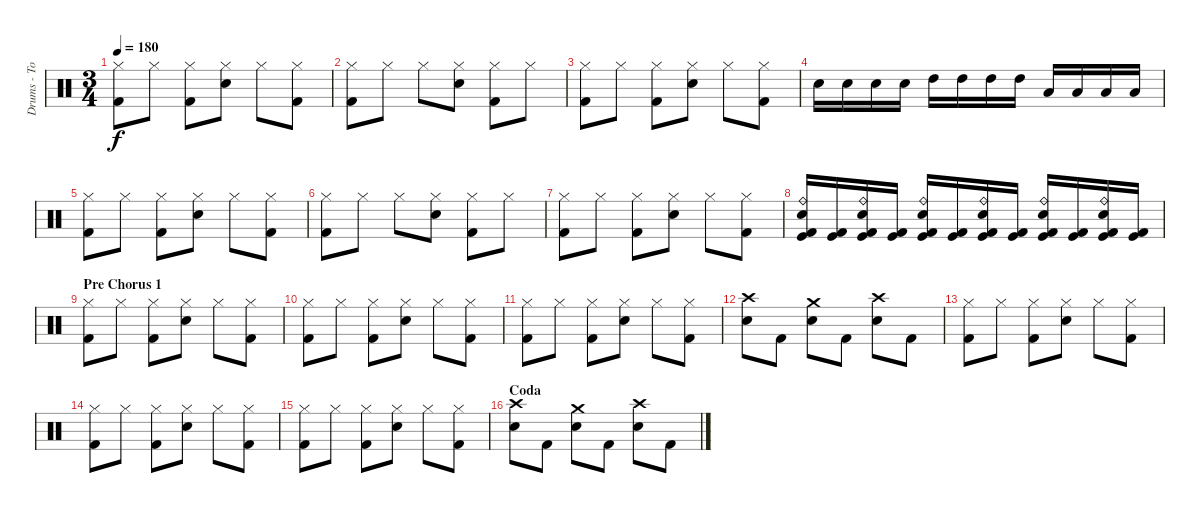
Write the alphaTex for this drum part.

\track ("Drums - Tomas" "Drums - To") {instrument percussion}
\staff {score}
\articulation defaults
\ts (3 4)
\tempo 180
\clef neutral
\ks c
("Hi-Hat (closed)" "Kick (hit) 2").8{dy f} "Hi-Hat (closed)".8 ("Hi-Hat (closed)" "Kick (hit) 2").8 ("Hi-Hat (closed)" "Electric Snare (hit)").8 "Hi-Hat (closed)".8 ("Hi-Hat (closed)" "Kick (hit) 2").8 |
("Hi-Hat (closed)" "Kick (hit) 2").8 "Hi-Hat (closed)".8 "Hi-Hat (closed)".8 ("Hi-Hat (closed)" "Electric Snare (hit)").8 ("Hi-Hat (closed)" "Kick (hit) 2").8 "Hi-Hat (closed)".8 |
("Hi-Hat (closed)" "Kick (hit) 2").8 "Hi-Hat (closed)".8 ("Hi-Hat (closed)" "Kick (hit) 2").8 ("Hi-Hat (closed)" "Electric Snare (hit)").8 "Hi-Hat (closed)".8 ("Hi-Hat (closed)" "Kick (hit) 2").8 |
"Electric Snare (hit)".16 "Electric Snare (hit)".16 "Electric Snare (hit)".16 "Electric Snare (hit)".16 "High Tom (hit)".16 "High Tom (hit)".16 "High Tom (hit)".16 "High Tom (hit)".16 "Low Tom (hit)".16 "Low Tom (hit)".16 "Low Tom (hit)".16 "Low Tom (hit)".16 |
("Hi-Hat (closed)" "Kick (hit) 2").8 "Hi-Hat (closed)".8 ("Hi-Hat (closed)" "Kick (hit) 2").8 ("Hi-Hat (closed)" "Electric Snare (hit)").8 "Hi-Hat (closed)".8 ("Hi-Hat (closed)" "Kick (hit) 2").8 |
("Hi-Hat (closed)" "Kick (hit) 2").8 "Hi-Hat (closed)".8 "Hi-Hat (closed)".8 ("Hi-Hat (closed)" "Electric Snare (hit)").8 ("Hi-Hat (closed)" "Kick (hit) 2").8 "Hi-Hat (closed)".8 |
("Hi-Hat (closed)" "Kick (hit) 2").8 "Hi-Hat (closed)".8 ("Hi-Hat (closed)" "Kick (hit) 2").8 ("Hi-Hat (closed)" "Electric Snare (hit)").8 "Hi-Hat (closed)".8 ("Hi-Hat (closed)" "Kick (hit) 2").8 |
("Ride (bell)" "Electric Snare (hit)" "Kick (hit)" "Kick (hit) 2").16 ("Kick (hit)" "Kick (hit) 2").16 ("Ride (bell)" "Electric Snare (hit)" "Kick (hit)" "Kick (hit) 2").16 ("Kick (hit)" "Kick (hit) 2").16 ("Ride (bell)" "Electric Snare (hit)" "Kick (hit)" "Kick (hit) 2").16 ("Kick (hit)" "Kick (hit) 2").16 ("Ride (bell)" "Electric Snare (hit)" "Kick (hit)" "Kick (hit) 2").16 ("Kick (hit)" "Kick (hit) 2").16 ("Ride (bell)" "Electric Snare (hit)" "Kick (hit)" "Kick (hit) 2").16 ("Kick (hit)" "Kick (hit) 2").16 ("Ride (bell)" "Electric Snare (hit)" "Kick (hit)" "Kick (hit) 2").16 ("Kick (hit)" "Kick (hit) 2").16 |
\section ("" "Pre Chorus 1")
("Hi-Hat (closed)" "Kick (hit) 2").8 "Hi-Hat (closed)".8 ("Hi-Hat (closed)" "Kick (hit) 2").8 ("Hi-Hat (closed)" "Electric Snare (hit)").8 "Hi-Hat (closed)".8 ("Hi-Hat (closed)" "Kick (hit) 2").8 |
("Hi-Hat (closed)" "Kick (hit) 2").8 "Hi-Hat (closed)".8 ("Hi-Hat (closed)" "Kick (hit) 2").8 ("Hi-Hat (closed)" "Electric Snare (hit)").8 "Hi-Hat (closed)".8 ("Hi-Hat (closed)" "Kick (hit) 2").8 |
("Hi-Hat (closed)" "Kick (hit) 2").8 "Hi-Hat (closed)".8 ("Hi-Hat (closed)" "Kick (hit) 2").8 ("Hi-Hat (closed)" "Electric Snare (hit)").8 "Hi-Hat (closed)".8 ("Hi-Hat (closed)" "Kick (hit) 2").8 |
("Crash high (hit)" "Electric Snare (hit)").8 "Kick (hit) 2".8{volume 0} ("Crash medium (hit)" "Electric Snare (hit)").8{volume 16} "Kick (hit) 2".8{volume 0} ("Crash high (hit)" "Electric Snare (hit)").8{volume 16} "Kick (hit) 2".8{volume 0} |
("Hi-Hat (closed)" "Kick (hit) 2").8{volume 16} "Hi-Hat (closed)".8 ("Hi-Hat (closed)" "Kick (hit) 2").8 ("Hi-Hat (closed)" "Electric Snare (hit)").8 "Hi-Hat (closed)".8 ("Hi-Hat (closed)" "Kick (hit) 2").8 |
("Hi-Hat (closed)" "Kick (hit) 2").8 "Hi-Hat (closed)".8 ("Hi-Hat (closed)" "Kick (hit) 2").8 ("Hi-Hat (closed)" "Electric Snare (hit)").8 "Hi-Hat (closed)".8 ("Hi-Hat (closed)" "Kick (hit) 2").8 |
("Hi-Hat (closed)" "Kick (hit) 2").8 "Hi-Hat (closed)".8 ("Hi-Hat (closed)" "Kick (hit) 2").8 ("Hi-Hat (closed)" "Electric Snare (hit)").8 "Hi-Hat (closed)".8 ("Hi-Hat (closed)" "Kick (hit) 2").8 |
\section ("" "Coda")
("Crash high (hit)" "Electric Snare (hit)").8 "Kick (hit) 2".8 ("Crash medium (hit)" "Electric Snare (hit)").8{volume 16} "Kick (hit) 2".8 ("Crash high (hit)" "Electric Snare (hit)").8{volume 16} "Kick (hit) 2".8
